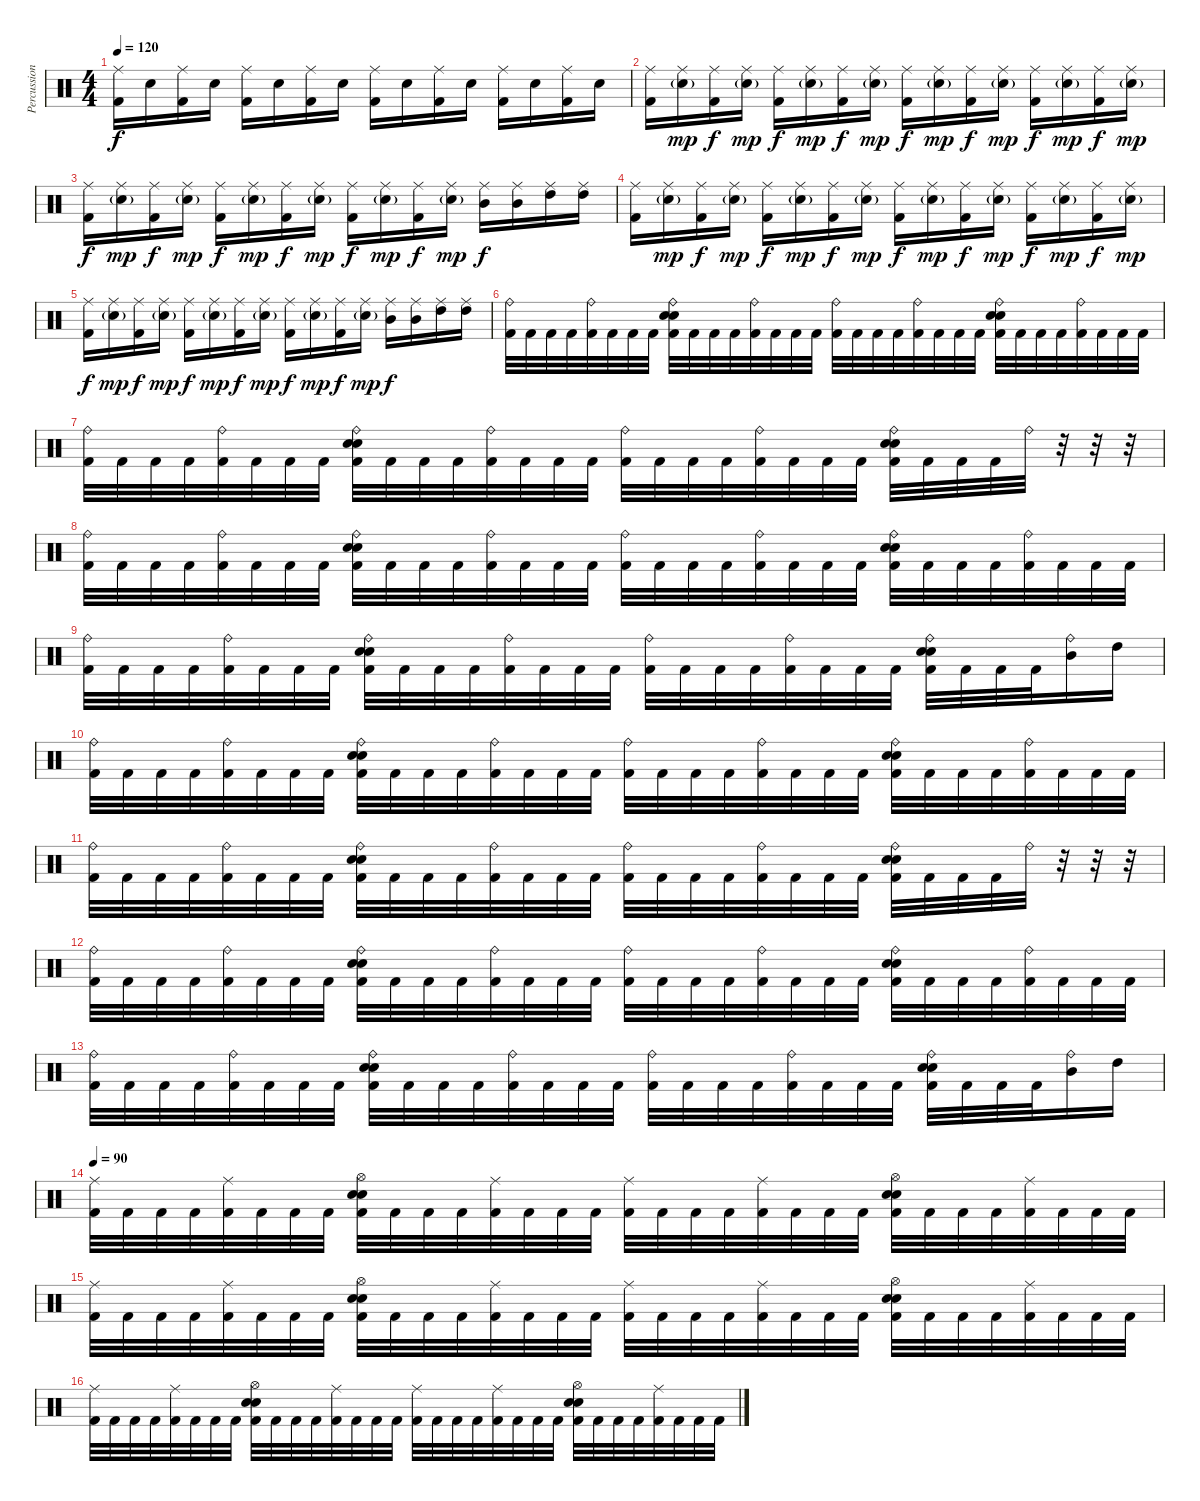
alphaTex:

\track ("Percussion" "Percussion") {instrument percussion}
\staff {score}
\articulation defaults
\ts (4 4)
\tempo 120
\clef neutral
\ks c
("Ride (middle)" "Kick (hit) 2").16{dy f} "Snare (hit) 2".16 ("Ride (middle)" "Kick (hit) 2").16 "Snare (hit) 2".16 ("Ride (middle)" "Kick (hit) 2").16 "Snare (hit) 2".16 ("Ride (middle)" "Kick (hit) 2").16 "Snare (hit) 2".16 ("Ride (middle)" "Kick (hit) 2").16 "Snare (hit) 2".16 ("Ride (middle)" "Kick (hit) 2").16 "Snare (hit) 2".16 ("Ride (middle)" "Kick (hit) 2").16 "Snare (hit) 2".16 ("Ride (middle)" "Kick (hit) 2").16 "Snare (hit) 2".16 |
("Ride (middle)" "Kick (hit) 2").16 ("Ride (middle)" "Snare (hit) 2"{g}).16{dy mp} ("Ride (middle)" "Kick (hit) 2").16{dy f} ("Ride (middle)" "Snare (hit) 2"{g}).16{dy mp} ("Ride (middle)" "Kick (hit) 2").16{dy f} ("Ride (middle)" "Snare (hit) 2"{g}).16{dy mp} ("Ride (middle)" "Kick (hit) 2").16{dy f} ("Ride (middle)" "Snare (hit) 2"{g}).16{dy mp} ("Ride (middle)" "Kick (hit) 2").16{dy f} ("Ride (middle)" "Snare (hit) 2"{g}).16{dy mp} ("Ride (middle)" "Kick (hit) 2").16{dy f} ("Ride (middle)" "Snare (hit) 2"{g}).16{dy mp} ("Ride (middle)" "Kick (hit) 2").16{dy f} ("Ride (middle)" "Snare (hit) 2"{g}).16{dy mp} ("Ride (middle)" "Kick (hit) 2").16{dy f} ("Ride (middle)" "Snare (hit) 2"{g}).16{dy mp} |
("Ride (middle)" "Kick (hit) 2").16{dy f} ("Ride (middle)" "Snare (hit) 2"{g}).16{dy mp} ("Ride (middle)" "Kick (hit) 2").16{dy f} ("Ride (middle)" "Snare (hit) 2"{g}).16{dy mp} ("Ride (middle)" "Kick (hit) 2").16{dy f} ("Ride (middle)" "Snare (hit) 2"{g}).16{dy mp} ("Ride (middle)" "Kick (hit) 2").16{dy f} ("Ride (middle)" "Snare (hit) 2"{g}).16{dy mp} ("Ride (middle)" "Kick (hit) 2").16{dy f} ("Ride (middle)" "Snare (hit) 2"{g}).16{dy mp} ("Ride (middle)" "Kick (hit) 2").16{dy f} ("Ride (middle)" "Snare (hit) 2"{g}).16{dy mp} ("Ride (middle)" "Mid Tom (hit)").16{dy f} ("Ride (middle)" "Mid Tom (hit)").16 ("Ride (middle)" "High Tom (hit)").16 ("Ride (middle)" "High Tom (hit)").16 |
("Ride (middle)" "Kick (hit) 2").16 ("Ride (middle)" "Snare (hit) 2"{g}).16{dy mp} ("Ride (middle)" "Kick (hit) 2").16{dy f} ("Ride (middle)" "Snare (hit) 2"{g}).16{dy mp} ("Ride (middle)" "Kick (hit) 2").16{dy f} ("Ride (middle)" "Snare (hit) 2"{g}).16{dy mp} ("Ride (middle)" "Kick (hit) 2").16{dy f} ("Ride (middle)" "Snare (hit) 2"{g}).16{dy mp} ("Ride (middle)" "Kick (hit) 2").16{dy f} ("Ride (middle)" "Snare (hit) 2"{g}).16{dy mp} ("Ride (middle)" "Kick (hit) 2").16{dy f} ("Ride (middle)" "Snare (hit) 2"{g}).16{dy mp} ("Ride (middle)" "Kick (hit) 2").16{dy f} ("Ride (middle)" "Snare (hit) 2"{g}).16{dy mp} ("Ride (middle)" "Kick (hit) 2").16{dy f} ("Ride (middle)" "Snare (hit) 2"{g}).16{dy mp} |
("Ride (middle)" "Kick (hit) 2").16{dy f} ("Ride (middle)" "Snare (hit) 2"{g}).16{dy mp} ("Ride (middle)" "Kick (hit) 2").16{dy f} ("Ride (middle)" "Snare (hit) 2"{g}).16{dy mp} ("Ride (middle)" "Kick (hit) 2").16{dy f} ("Ride (middle)" "Snare (hit) 2"{g}).16{dy mp} ("Ride (middle)" "Kick (hit) 2").16{dy f} ("Ride (middle)" "Snare (hit) 2"{g}).16{dy mp} ("Ride (middle)" "Kick (hit) 2").16{dy f} ("Ride (middle)" "Snare (hit) 2"{g}).16{dy mp} ("Ride (middle)" "Kick (hit) 2").16{dy f} ("Ride (middle)" "Snare (hit) 2"{g}).16{dy mp} ("Ride (middle)" "Mid Tom (hit)").16{dy f} ("Ride (middle)" "Mid Tom (hit)").16 ("Ride (middle)" "High Tom (hit)").16 ("Ride (middle)" "High Tom (hit)").16 |
("Ride (bell)" "Kick (hit) 2").32 "Kick (hit) 2".32 "Kick (hit) 2".32 "Kick (hit) 2".32 ("Ride (bell)" "Kick (hit) 2").32 "Kick (hit) 2".32 "Kick (hit) 2".32 "Kick (hit) 2".32 ("Ride (bell)" "Electric Snare (hit)" "Snare (hit) 2" "Kick (hit) 2").32 "Kick (hit) 2".32 "Kick (hit) 2".32 "Kick (hit) 2".32 ("Ride (bell)" "Kick (hit) 2").32 "Kick (hit) 2".32 "Kick (hit) 2".32 "Kick (hit) 2".32 ("Ride (bell)" "Kick (hit) 2").32 "Kick (hit) 2".32 "Kick (hit) 2".32 "Kick (hit) 2".32 ("Ride (bell)" "Kick (hit) 2").32 "Kick (hit) 2".32 "Kick (hit) 2".32 "Kick (hit) 2".32 ("Ride (bell)" "Electric Snare (hit)" "Snare (hit) 2" "Kick (hit) 2").32 "Kick (hit) 2".32 "Kick (hit) 2".32 "Kick (hit) 2".32 ("Ride (bell)" "Kick (hit) 2").32 "Kick (hit) 2".32 "Kick (hit) 2".32 "Kick (hit) 2".32 |
("Ride (bell)" "Kick (hit) 2").32 "Kick (hit) 2".32 "Kick (hit) 2".32 "Kick (hit) 2".32 ("Ride (bell)" "Kick (hit) 2").32 "Kick (hit) 2".32 "Kick (hit) 2".32 "Kick (hit) 2".32 ("Ride (bell)" "Electric Snare (hit)" "Snare (hit) 2" "Kick (hit) 2").32 "Kick (hit) 2".32 "Kick (hit) 2".32 "Kick (hit) 2".32 ("Ride (bell)" "Kick (hit) 2").32 "Kick (hit) 2".32 "Kick (hit) 2".32 "Kick (hit) 2".32 ("Ride (bell)" "Kick (hit) 2").32 "Kick (hit) 2".32 "Kick (hit) 2".32 "Kick (hit) 2".32 ("Ride (bell)" "Kick (hit) 2").32 "Kick (hit) 2".32 "Kick (hit) 2".32 "Kick (hit) 2".32 ("Ride (bell)" "Electric Snare (hit)" "Snare (hit) 2" "Kick (hit) 2").32 "Kick (hit) 2".32 "Kick (hit) 2".32 "Kick (hit) 2".32 "Ride (bell)".32 r.32 r.32 r.32 |
("Ride (bell)" "Kick (hit) 2").32 "Kick (hit) 2".32 "Kick (hit) 2".32 "Kick (hit) 2".32 ("Ride (bell)" "Kick (hit) 2").32 "Kick (hit) 2".32 "Kick (hit) 2".32 "Kick (hit) 2".32 ("Ride (bell)" "Electric Snare (hit)" "Snare (hit) 2" "Kick (hit) 2").32 "Kick (hit) 2".32 "Kick (hit) 2".32 "Kick (hit) 2".32 ("Ride (bell)" "Kick (hit) 2").32 "Kick (hit) 2".32 "Kick (hit) 2".32 "Kick (hit) 2".32 ("Ride (bell)" "Kick (hit) 2").32 "Kick (hit) 2".32 "Kick (hit) 2".32 "Kick (hit) 2".32 ("Ride (bell)" "Kick (hit) 2").32 "Kick (hit) 2".32 "Kick (hit) 2".32 "Kick (hit) 2".32 ("Ride (bell)" "Electric Snare (hit)" "Snare (hit) 2" "Kick (hit) 2").32 "Kick (hit) 2".32 "Kick (hit) 2".32 "Kick (hit) 2".32 ("Ride (bell)" "Kick (hit) 2").32 "Kick (hit) 2".32 "Kick (hit) 2".32 "Kick (hit) 2".32 |
("Ride (bell)" "Kick (hit) 2").32 "Kick (hit) 2".32 "Kick (hit) 2".32 "Kick (hit) 2".32 ("Ride (bell)" "Kick (hit) 2").32 "Kick (hit) 2".32 "Kick (hit) 2".32 "Kick (hit) 2".32 ("Ride (bell)" "Electric Snare (hit)" "Snare (hit) 2" "Kick (hit) 2").32 "Kick (hit) 2".32 "Kick (hit) 2".32 "Kick (hit) 2".32 ("Ride (bell)" "Kick (hit) 2").32 "Kick (hit) 2".32 "Kick (hit) 2".32 "Kick (hit) 2".32 ("Ride (bell)" "Kick (hit) 2").32 "Kick (hit) 2".32 "Kick (hit) 2".32 "Kick (hit) 2".32 ("Ride (bell)" "Kick (hit) 2").32 "Kick (hit) 2".32 "Kick (hit) 2".32 "Kick (hit) 2".32 ("Ride (bell)" "Electric Snare (hit)" "Snare (hit) 2" "Kick (hit) 2").32 "Kick (hit) 2".32 "Kick (hit) 2".32 "Kick (hit) 2".32 ("Ride (bell)" "Mid Tom (hit)").16 "High Tom (hit)".16 |
("Ride (bell)" "Kick (hit) 2").32 "Kick (hit) 2".32 "Kick (hit) 2".32 "Kick (hit) 2".32 ("Ride (bell)" "Kick (hit) 2").32 "Kick (hit) 2".32 "Kick (hit) 2".32 "Kick (hit) 2".32 ("Ride (bell)" "Electric Snare (hit)" "Snare (hit) 2" "Kick (hit) 2").32 "Kick (hit) 2".32 "Kick (hit) 2".32 "Kick (hit) 2".32 ("Ride (bell)" "Kick (hit) 2").32 "Kick (hit) 2".32 "Kick (hit) 2".32 "Kick (hit) 2".32 ("Ride (bell)" "Kick (hit) 2").32 "Kick (hit) 2".32 "Kick (hit) 2".32 "Kick (hit) 2".32 ("Ride (bell)" "Kick (hit) 2").32 "Kick (hit) 2".32 "Kick (hit) 2".32 "Kick (hit) 2".32 ("Ride (bell)" "Electric Snare (hit)" "Snare (hit) 2" "Kick (hit) 2").32 "Kick (hit) 2".32 "Kick (hit) 2".32 "Kick (hit) 2".32 ("Ride (bell)" "Kick (hit) 2").32 "Kick (hit) 2".32 "Kick (hit) 2".32 "Kick (hit) 2".32 |
("Ride (bell)" "Kick (hit) 2").32 "Kick (hit) 2".32 "Kick (hit) 2".32 "Kick (hit) 2".32 ("Ride (bell)" "Kick (hit) 2").32 "Kick (hit) 2".32 "Kick (hit) 2".32 "Kick (hit) 2".32 ("Ride (bell)" "Electric Snare (hit)" "Snare (hit) 2" "Kick (hit) 2").32 "Kick (hit) 2".32 "Kick (hit) 2".32 "Kick (hit) 2".32 ("Ride (bell)" "Kick (hit) 2").32 "Kick (hit) 2".32 "Kick (hit) 2".32 "Kick (hit) 2".32 ("Ride (bell)" "Kick (hit) 2").32 "Kick (hit) 2".32 "Kick (hit) 2".32 "Kick (hit) 2".32 ("Ride (bell)" "Kick (hit) 2").32 "Kick (hit) 2".32 "Kick (hit) 2".32 "Kick (hit) 2".32 ("Ride (bell)" "Electric Snare (hit)" "Snare (hit) 2" "Kick (hit) 2").32 "Kick (hit) 2".32 "Kick (hit) 2".32 "Kick (hit) 2".32 "Ride (bell)".32 r.32 r.32 r.32 |
("Ride (bell)" "Kick (hit) 2").32 "Kick (hit) 2".32 "Kick (hit) 2".32 "Kick (hit) 2".32 ("Ride (bell)" "Kick (hit) 2").32 "Kick (hit) 2".32 "Kick (hit) 2".32 "Kick (hit) 2".32 ("Ride (bell)" "Electric Snare (hit)" "Snare (hit) 2" "Kick (hit) 2").32 "Kick (hit) 2".32 "Kick (hit) 2".32 "Kick (hit) 2".32 ("Ride (bell)" "Kick (hit) 2").32 "Kick (hit) 2".32 "Kick (hit) 2".32 "Kick (hit) 2".32 ("Ride (bell)" "Kick (hit) 2").32 "Kick (hit) 2".32 "Kick (hit) 2".32 "Kick (hit) 2".32 ("Ride (bell)" "Kick (hit) 2").32 "Kick (hit) 2".32 "Kick (hit) 2".32 "Kick (hit) 2".32 ("Ride (bell)" "Electric Snare (hit)" "Snare (hit) 2" "Kick (hit) 2").32 "Kick (hit) 2".32 "Kick (hit) 2".32 "Kick (hit) 2".32 ("Ride (bell)" "Kick (hit) 2").32 "Kick (hit) 2".32 "Kick (hit) 2".32 "Kick (hit) 2".32 |
("Ride (bell)" "Kick (hit) 2").32 "Kick (hit) 2".32 "Kick (hit) 2".32 "Kick (hit) 2".32 ("Ride (bell)" "Kick (hit) 2").32 "Kick (hit) 2".32 "Kick (hit) 2".32 "Kick (hit) 2".32 ("Ride (bell)" "Electric Snare (hit)" "Snare (hit) 2" "Kick (hit) 2").32 "Kick (hit) 2".32 "Kick (hit) 2".32 "Kick (hit) 2".32 ("Ride (bell)" "Kick (hit) 2").32 "Kick (hit) 2".32 "Kick (hit) 2".32 "Kick (hit) 2".32 ("Ride (bell)" "Kick (hit) 2").32 "Kick (hit) 2".32 "Kick (hit) 2".32 "Kick (hit) 2".32 ("Ride (bell)" "Kick (hit) 2").32 "Kick (hit) 2".32 "Kick (hit) 2".32 "Kick (hit) 2".32 ("Ride (bell)" "Electric Snare (hit)" "Snare (hit) 2" "Kick (hit) 2").32 "Kick (hit) 2".32 "Kick (hit) 2".32 "Kick (hit) 2".32 ("Ride (bell)" "Mid Tom (hit)").16 "High Tom (hit)".16 |
\tempo 90
("Ride (middle)" "Kick (hit) 2").32 "Kick (hit) 2".32 "Kick (hit) 2".32 "Kick (hit) 2".32 ("Ride (middle)" "Kick (hit) 2").32 "Kick (hit) 2".32 "Kick (hit) 2".32 "Kick (hit) 2".32 ("Hi-Hat (open)" "Electric Snare (hit)" "Snare (hit) 2" "Kick (hit) 2").32 "Kick (hit) 2".32 "Kick (hit) 2".32 "Kick (hit) 2".32 ("Ride (middle)" "Kick (hit) 2").32 "Kick (hit) 2".32 "Kick (hit) 2".32 "Kick (hit) 2".32 ("Ride (middle)" "Kick (hit) 2").32 "Kick (hit) 2".32 "Kick (hit) 2".32 "Kick (hit) 2".32 ("Ride (middle)" "Kick (hit) 2").32 "Kick (hit) 2".32 "Kick (hit) 2".32 "Kick (hit) 2".32 ("Hi-Hat (open)" "Electric Snare (hit)" "Snare (hit) 2" "Kick (hit) 2").32 "Kick (hit) 2".32 "Kick (hit) 2".32 "Kick (hit) 2".32 ("Ride (middle)" "Kick (hit) 2").32 "Kick (hit) 2".32 "Kick (hit) 2".32 "Kick (hit) 2".32 |
("Ride (middle)" "Kick (hit) 2").32 "Kick (hit) 2".32 "Kick (hit) 2".32 "Kick (hit) 2".32 ("Ride (middle)" "Kick (hit) 2").32 "Kick (hit) 2".32 "Kick (hit) 2".32 "Kick (hit) 2".32 ("Hi-Hat (open)" "Snare (hit) 2" "Electric Snare (hit)" "Kick (hit) 2").32 "Kick (hit) 2".32 "Kick (hit) 2".32 "Kick (hit) 2".32 ("Ride (middle)" "Kick (hit) 2").32 "Kick (hit) 2".32 "Kick (hit) 2".32 "Kick (hit) 2".32 ("Ride (middle)" "Kick (hit) 2").32 "Kick (hit) 2".32 "Kick (hit) 2".32 "Kick (hit) 2".32 ("Ride (middle)" "Kick (hit) 2").32 "Kick (hit) 2".32 "Kick (hit) 2".32 "Kick (hit) 2".32 ("Hi-Hat (open)" "Snare (hit) 2" "Electric Snare (hit)" "Kick (hit) 2").32 "Kick (hit) 2".32 "Kick (hit) 2".32 "Kick (hit) 2".32 ("Ride (middle)" "Kick (hit) 2").32 "Kick (hit) 2".32 "Kick (hit) 2".32 "Kick (hit) 2".32 |
("Ride (middle)" "Kick (hit) 2").32 "Kick (hit) 2".32 "Kick (hit) 2".32 "Kick (hit) 2".32 ("Ride (middle)" "Kick (hit) 2").32 "Kick (hit) 2".32 "Kick (hit) 2".32 "Kick (hit) 2".32 ("Hi-Hat (open)" "Electric Snare (hit)" "Snare (hit) 2" "Kick (hit) 2").32 "Kick (hit) 2".32 "Kick (hit) 2".32 "Kick (hit) 2".32 ("Ride (middle)" "Kick (hit) 2").32 "Kick (hit) 2".32 "Kick (hit) 2".32 "Kick (hit) 2".32 ("Ride (middle)" "Kick (hit) 2").32 "Kick (hit) 2".32 "Kick (hit) 2".32 "Kick (hit) 2".32 ("Ride (middle)" "Kick (hit) 2").32 "Kick (hit) 2".32 "Kick (hit) 2".32 "Kick (hit) 2".32 ("Hi-Hat (open)" "Electric Snare (hit)" "Snare (hit) 2" "Kick (hit) 2").32 "Kick (hit) 2".32 "Kick (hit) 2".32 "Kick (hit) 2".32 ("Ride (middle)" "Kick (hit) 2").32 "Kick (hit) 2".32 "Kick (hit) 2".32 "Kick (hit) 2".32
